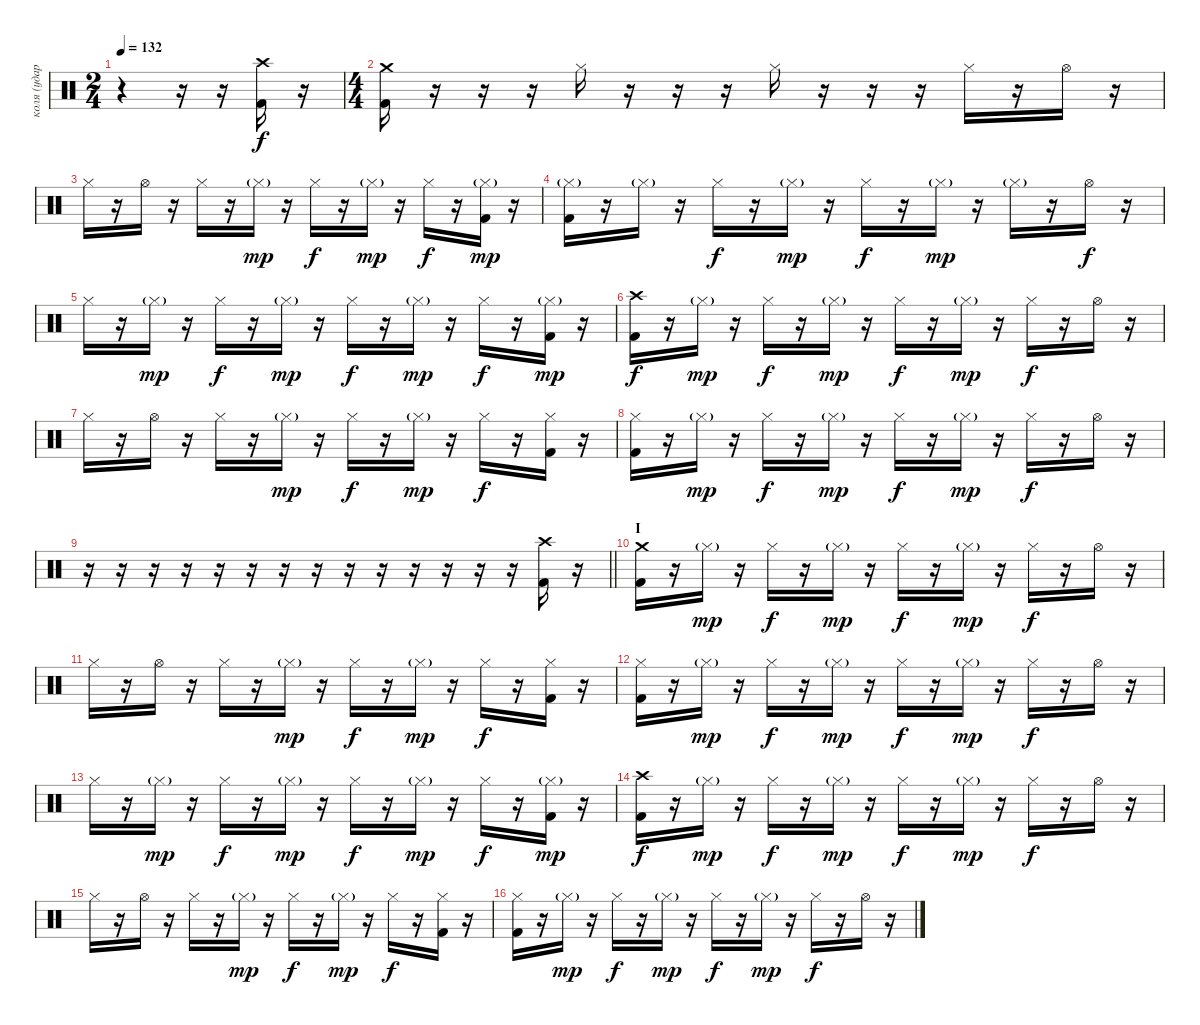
\track ("коля (ударные)" "коля (удар") {instrument percussion}
\staff {score}
\articulation defaults
\ts (2 4)
\tempo 132
\clef neutral
\ks c
r.4{dy f} r.16 r.16 ("Kick (hit) 2" "Crash high (hit)").16 r.16 |
\ts (4 4)
("Kick (hit) 2" "Crash medium (hit)").16 r.16 r.16 r.16 "Hi-Hat (closed)".16 r.16 r.16 r.16 "Hi-Hat (closed)".16 r.16 r.16 r.16 "Hi-Hat (closed)".16 r.16 "Hi-Hat (open)".16 r.16 |
"Hi-Hat (closed)".16 r.16 "Hi-Hat (open)".16 r.16 "Hi-Hat (closed)".16 r.16 "Hi-Hat (closed)"{g}.16{dy mp} r.16 "Hi-Hat (closed)".16{dy f} r.16 "Hi-Hat (closed)"{g}.16{dy mp} r.16 "Hi-Hat (closed)".16{dy f} r.16 ("Kick (hit) 2" "Hi-Hat (closed)"{g}).16{dy mp} r.16 |
("Kick (hit) 2" "Hi-Hat (closed)"{g}).16 r.16 "Hi-Hat (closed)"{g}.16 r.16 "Hi-Hat (closed)".16{dy f} r.16 "Hi-Hat (closed)"{g}.16{dy mp} r.16 "Hi-Hat (closed)".16{dy f} r.16 "Hi-Hat (closed)"{g}.16{dy mp} r.16 "Hi-Hat (closed)"{g}.16 r.16 "Hi-Hat (open)".16{dy f} r.16 |
"Hi-Hat (closed)".16 r.16 "Hi-Hat (closed)"{g}.16{dy mp} r.16 "Hi-Hat (closed)".16{dy f} r.16 "Hi-Hat (closed)"{g}.16{dy mp} r.16 "Hi-Hat (closed)".16{dy f} r.16 "Hi-Hat (closed)"{g}.16{dy mp} r.16 "Hi-Hat (closed)".16{dy f} r.16 ("Kick (hit) 2" "Hi-Hat (closed)"{g}).16{dy mp} r.16 |
("Kick (hit) 2" "Crash high (hit)").16{dy f} r.16 "Hi-Hat (closed)"{g}.16{dy mp} r.16 "Hi-Hat (closed)".16{dy f} r.16 "Hi-Hat (closed)"{g}.16{dy mp} r.16 "Hi-Hat (closed)".16{dy f} r.16 "Hi-Hat (closed)"{g}.16{dy mp} r.16 "Hi-Hat (closed)".16{dy f} r.16 "Hi-Hat (open)".16 r.16 |
"Hi-Hat (closed)".16 r.16 "Hi-Hat (open)".16 r.16 "Hi-Hat (closed)".16 r.16 "Hi-Hat (closed)"{g}.16{dy mp} r.16 "Hi-Hat (closed)".16{dy f} r.16 "Hi-Hat (closed)"{g}.16{dy mp} r.16 "Hi-Hat (closed)".16{dy f} r.16 ("Kick (hit) 2" "Hi-Hat (closed)").16 r.16 |
("Kick (hit) 2" "Hi-Hat (closed)").16 r.16 "Hi-Hat (closed)"{g}.16{dy mp} r.16 "Hi-Hat (closed)".16{dy f} r.16 "Hi-Hat (closed)"{g}.16{dy mp} r.16 "Hi-Hat (closed)".16{dy f} r.16 "Hi-Hat (closed)"{g}.16{dy mp} r.16 "Hi-Hat (closed)".16{dy f} r.16 "Hi-Hat (open)".16 r.16 |
\barLineRight lightlight
r.16 r.16 r.16 r.16 r.16 r.16 r.16 r.16 r.16 r.16 r.16 r.16 r.16 r.16 ("Kick (hit) 2" "Crash high (hit)").16 r.16 |
\section ("" "I")
("Kick (hit) 2" "Crash medium (hit)").16 r.16 "Hi-Hat (closed)"{g}.16{dy mp} r.16 "Hi-Hat (closed)".16{dy f} r.16 "Hi-Hat (closed)"{g}.16{dy mp} r.16 "Hi-Hat (closed)".16{dy f} r.16 "Hi-Hat (closed)"{g}.16{dy mp} r.16 "Hi-Hat (closed)".16{dy f} r.16 "Hi-Hat (open)".16 r.16 |
"Hi-Hat (closed)".16 r.16 "Hi-Hat (open)".16 r.16 "Hi-Hat (closed)".16 r.16 "Hi-Hat (closed)"{g}.16{dy mp} r.16 "Hi-Hat (closed)".16{dy f} r.16 "Hi-Hat (closed)"{g}.16{dy mp} r.16 "Hi-Hat (closed)".16{dy f} r.16 ("Kick (hit) 2" "Hi-Hat (closed)").16 r.16 |
("Kick (hit) 2" "Hi-Hat (closed)").16 r.16 "Hi-Hat (closed)"{g}.16{dy mp} r.16 "Hi-Hat (closed)".16{dy f} r.16 "Hi-Hat (closed)"{g}.16{dy mp} r.16 "Hi-Hat (closed)".16{dy f} r.16 "Hi-Hat (closed)"{g}.16{dy mp} r.16 "Hi-Hat (closed)".16{dy f} r.16 "Hi-Hat (open)".16 r.16 |
"Hi-Hat (closed)".16 r.16 "Hi-Hat (closed)"{g}.16{dy mp} r.16 "Hi-Hat (closed)".16{dy f} r.16 "Hi-Hat (closed)"{g}.16{dy mp} r.16 "Hi-Hat (closed)".16{dy f} r.16 "Hi-Hat (closed)"{g}.16{dy mp} r.16 "Hi-Hat (closed)".16{dy f} r.16 ("Kick (hit) 2" "Hi-Hat (closed)"{g}).16{dy mp} r.16 |
("Kick (hit) 2" "Crash high (hit)").16{dy f} r.16 "Hi-Hat (closed)"{g}.16{dy mp} r.16 "Hi-Hat (closed)".16{dy f} r.16 "Hi-Hat (closed)"{g}.16{dy mp} r.16 "Hi-Hat (closed)".16{dy f} r.16 "Hi-Hat (closed)"{g}.16{dy mp} r.16 "Hi-Hat (closed)".16{dy f} r.16 "Hi-Hat (open)".16 r.16 |
"Hi-Hat (closed)".16 r.16 "Hi-Hat (open)".16 r.16 "Hi-Hat (closed)".16 r.16 "Hi-Hat (closed)"{g}.16{dy mp} r.16 "Hi-Hat (closed)".16{dy f} r.16 "Hi-Hat (closed)"{g}.16{dy mp} r.16 "Hi-Hat (closed)".16{dy f} r.16 ("Kick (hit) 2" "Hi-Hat (closed)").16 r.16 |
("Kick (hit) 2" "Hi-Hat (closed)").16 r.16 "Hi-Hat (closed)"{g}.16{dy mp} r.16 "Hi-Hat (closed)".16{dy f} r.16 "Hi-Hat (closed)"{g}.16{dy mp} r.16 "Hi-Hat (closed)".16{dy f} r.16 "Hi-Hat (closed)"{g}.16{dy mp} r.16 "Hi-Hat (closed)".16{dy f} r.16 "Hi-Hat (open)".16 r.16
